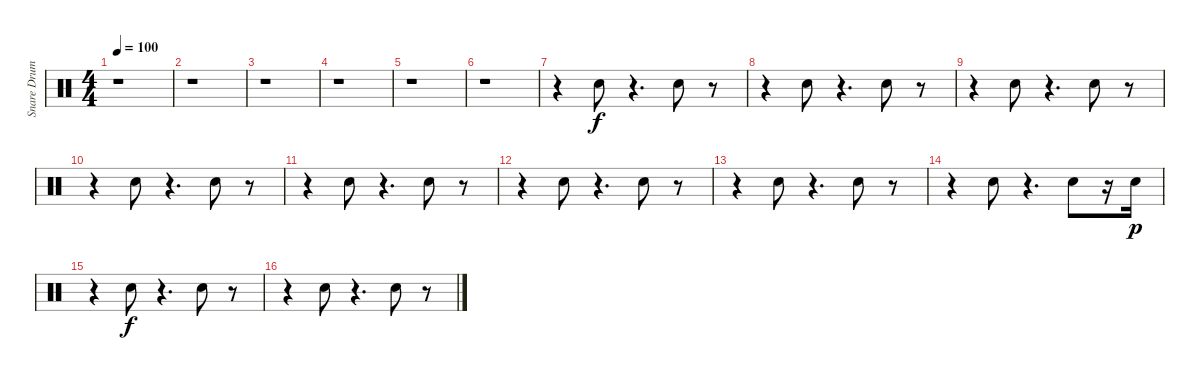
\track ("Snare Drum" "Snare Drum") {instrument percussion}
\staff {score}
\articulation defaults
\ts (4 4)
\tempo 100
\clef neutral
\ks c
r.1{dy f} |
r.1 |
r.1 |
r.1 |
r.1 |
r.1 |
r.4 "Snare (hit) 2".8 r.4{d} "Snare (hit) 2".8 r.8 |
r.4 "Snare (hit) 2".8 r.4{d} "Snare (hit) 2".8 r.8 |
r.4 "Snare (hit) 2".8 r.4{d} "Snare (hit) 2".8 r.8 |
r.4 "Snare (hit) 2".8 r.4{d} "Snare (hit) 2".8 r.8 |
r.4 "Snare (hit) 2".8 r.4{d} "Snare (hit) 2".8 r.8 |
r.4 "Snare (hit) 2".8 r.4{d} "Snare (hit) 2".8 r.8 |
r.4 "Snare (hit) 2".8 r.4{d} "Snare (hit) 2".8 r.8 |
r.4 "Snare (hit) 2".8 r.4{d} "Snare (hit) 2".8 r.16 "Snare (hit) 2".16{dy p} |
r.4 "Snare (hit) 2".8{dy f} r.4{d} "Snare (hit) 2".8 r.8 |
r.4 "Snare (hit) 2".8 r.4{d} "Snare (hit) 2".8 r.8
